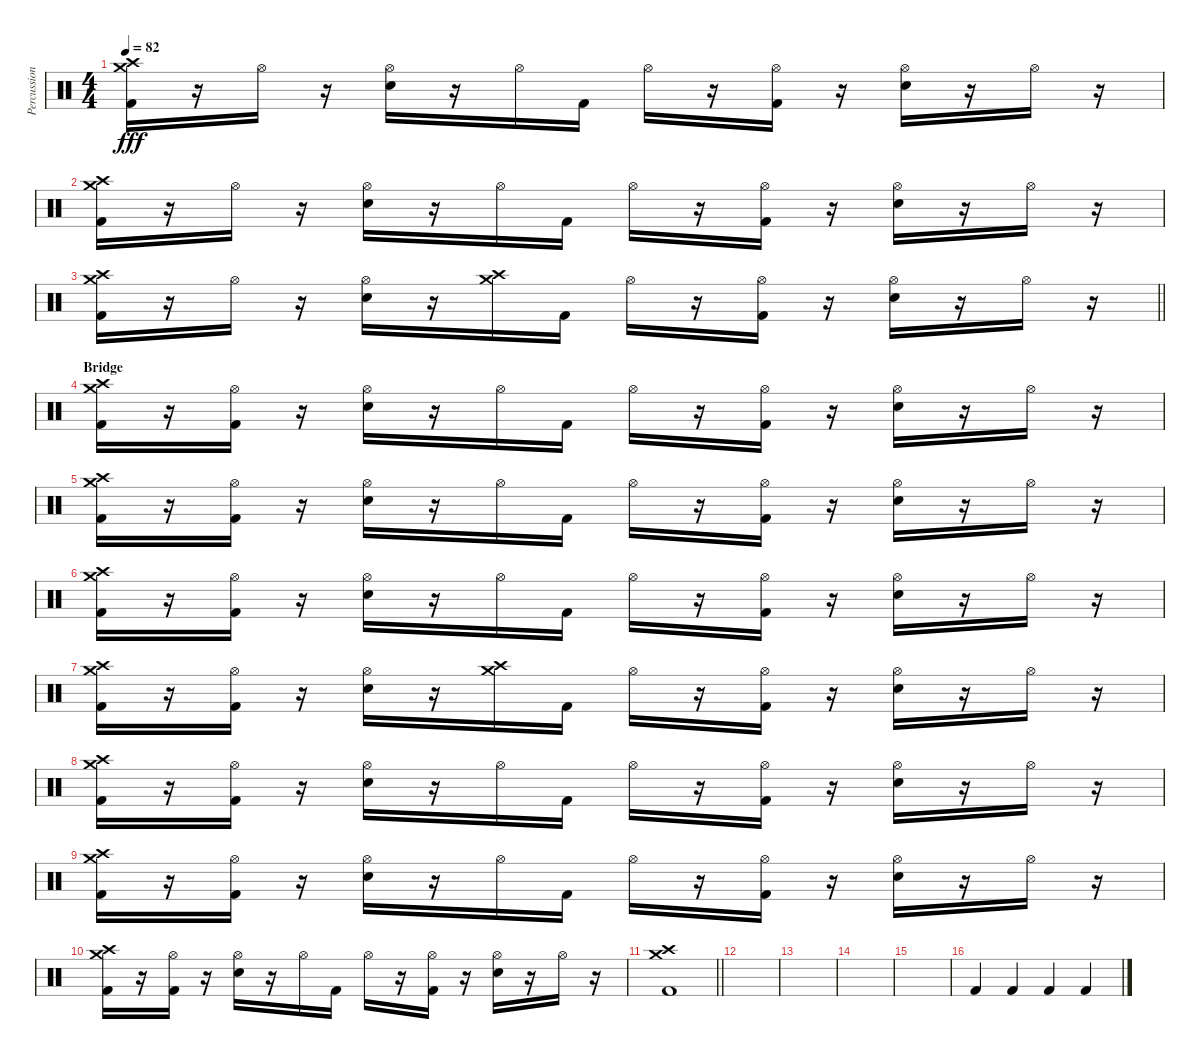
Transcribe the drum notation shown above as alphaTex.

\track ("Percussion" "Percussion") {instrument percussion}
\staff {score}
\articulation defaults
\ts (4 4)
\tempo 82
\clef neutral
\ks c
("Crash high (hit)" "Crash medium (hit)" "Kick (hit) 2").16{dy fff} r.16 "Hi-Hat (open)".16 r.16 ("Hi-Hat (open)" "Snare (hit) 2").16 r.16 "Hi-Hat (open)".16 "Kick (hit) 2".16 "Hi-Hat (open)".16 r.16 ("Hi-Hat (open)" "Kick (hit) 2").16 r.16 ("Hi-Hat (open)" "Snare (hit) 2").16 r.16 "Hi-Hat (open)".16 r.16 |
("Crash high (hit)" "Crash medium (hit)" "Kick (hit) 2").16 r.16 "Hi-Hat (open)".16 r.16 ("Hi-Hat (open)" "Snare (hit) 2").16 r.16 "Hi-Hat (open)".16 "Kick (hit) 2".16 "Hi-Hat (open)".16 r.16 ("Hi-Hat (open)" "Kick (hit) 2").16 r.16 ("Hi-Hat (open)" "Snare (hit) 2").16 r.16 "Hi-Hat (open)".16 r.16 |
\barLineRight lightlight
("Crash high (hit)" "Crash medium (hit)" "Kick (hit) 2").16 r.16 "Hi-Hat (open)".16 r.16 ("Hi-Hat (open)" "Snare (hit) 2").16 r.16 ("Crash medium (hit)" "Crash high (hit)").16 "Kick (hit) 2".16 "Hi-Hat (open)".16 r.16 ("Hi-Hat (open)" "Kick (hit) 2").16 r.16 ("Hi-Hat (open)" "Snare (hit) 2").16 r.16 "Hi-Hat (open)".16 r.16 |
\section ("" "Bridge")
("Crash high (hit)" "Crash medium (hit)" "Kick (hit) 2").16 r.16 ("Hi-Hat (open)" "Kick (hit) 2").16 r.16 ("Hi-Hat (open)" "Snare (hit) 2").16 r.16 "Hi-Hat (open)".16 "Kick (hit) 2".16 "Hi-Hat (open)".16 r.16 ("Hi-Hat (open)" "Kick (hit) 2").16 r.16 ("Hi-Hat (open)" "Snare (hit) 2").16 r.16 "Hi-Hat (open)".16 r.16 |
("Crash high (hit)" "Crash medium (hit)" "Kick (hit) 2").16 r.16 ("Hi-Hat (open)" "Kick (hit) 2").16 r.16 ("Hi-Hat (open)" "Snare (hit) 2").16 r.16 "Hi-Hat (open)".16 "Kick (hit) 2".16 "Hi-Hat (open)".16 r.16 ("Hi-Hat (open)" "Kick (hit) 2").16 r.16 ("Hi-Hat (open)" "Snare (hit) 2").16 r.16 "Hi-Hat (open)".16 r.16 |
("Crash high (hit)" "Crash medium (hit)" "Kick (hit) 2").16 r.16 ("Hi-Hat (open)" "Kick (hit) 2").16 r.16 ("Hi-Hat (open)" "Snare (hit) 2").16 r.16 "Hi-Hat (open)".16 "Kick (hit) 2".16 "Hi-Hat (open)".16 r.16 ("Hi-Hat (open)" "Kick (hit) 2").16 r.16 ("Hi-Hat (open)" "Snare (hit) 2").16 r.16 "Hi-Hat (open)".16 r.16 |
("Crash high (hit)" "Crash medium (hit)" "Kick (hit) 2").16 r.16 ("Hi-Hat (open)" "Kick (hit) 2").16 r.16 ("Hi-Hat (open)" "Snare (hit) 2").16 r.16 ("Crash medium (hit)" "Crash high (hit)").16 "Kick (hit) 2".16 "Hi-Hat (open)".16 r.16 ("Hi-Hat (open)" "Kick (hit) 2").16 r.16 ("Hi-Hat (open)" "Snare (hit) 2").16 r.16 "Hi-Hat (open)".16 r.16 |
("Crash high (hit)" "Crash medium (hit)" "Kick (hit) 2").16 r.16 ("Hi-Hat (open)" "Kick (hit) 2").16 r.16 ("Hi-Hat (open)" "Snare (hit) 2").16 r.16 "Hi-Hat (open)".16 "Kick (hit) 2".16 "Hi-Hat (open)".16 r.16 ("Hi-Hat (open)" "Kick (hit) 2").16 r.16 ("Hi-Hat (open)" "Snare (hit) 2").16 r.16 "Hi-Hat (open)".16 r.16 |
("Crash high (hit)" "Crash medium (hit)" "Kick (hit) 2").16 r.16 ("Hi-Hat (open)" "Kick (hit) 2").16 r.16 ("Hi-Hat (open)" "Snare (hit) 2").16 r.16 "Hi-Hat (open)".16 "Kick (hit) 2".16 "Hi-Hat (open)".16 r.16 ("Hi-Hat (open)" "Kick (hit) 2").16 r.16 ("Hi-Hat (open)" "Snare (hit) 2").16 r.16 "Hi-Hat (open)".16 r.16 |
("Crash high (hit)" "Crash medium (hit)" "Kick (hit) 2").16 r.16 ("Hi-Hat (open)" "Kick (hit) 2").16 r.16 ("Hi-Hat (open)" "Snare (hit) 2").16 r.16 "Hi-Hat (open)".16 "Kick (hit) 2".16 "Hi-Hat (open)".16 r.16 ("Hi-Hat (open)" "Kick (hit) 2").16 r.16 ("Hi-Hat (open)" "Snare (hit) 2").16 r.16 "Hi-Hat (open)".16 r.16 |
\barLineRight lightlight
("Crash high (hit)" "Crash medium (hit)" "Kick (hit) 2").1 |
\section ("" "")
|
|
|
|
"Kick (hit) 2".4 "Kick (hit) 2".4 "Kick (hit) 2".4 "Kick (hit) 2".4
